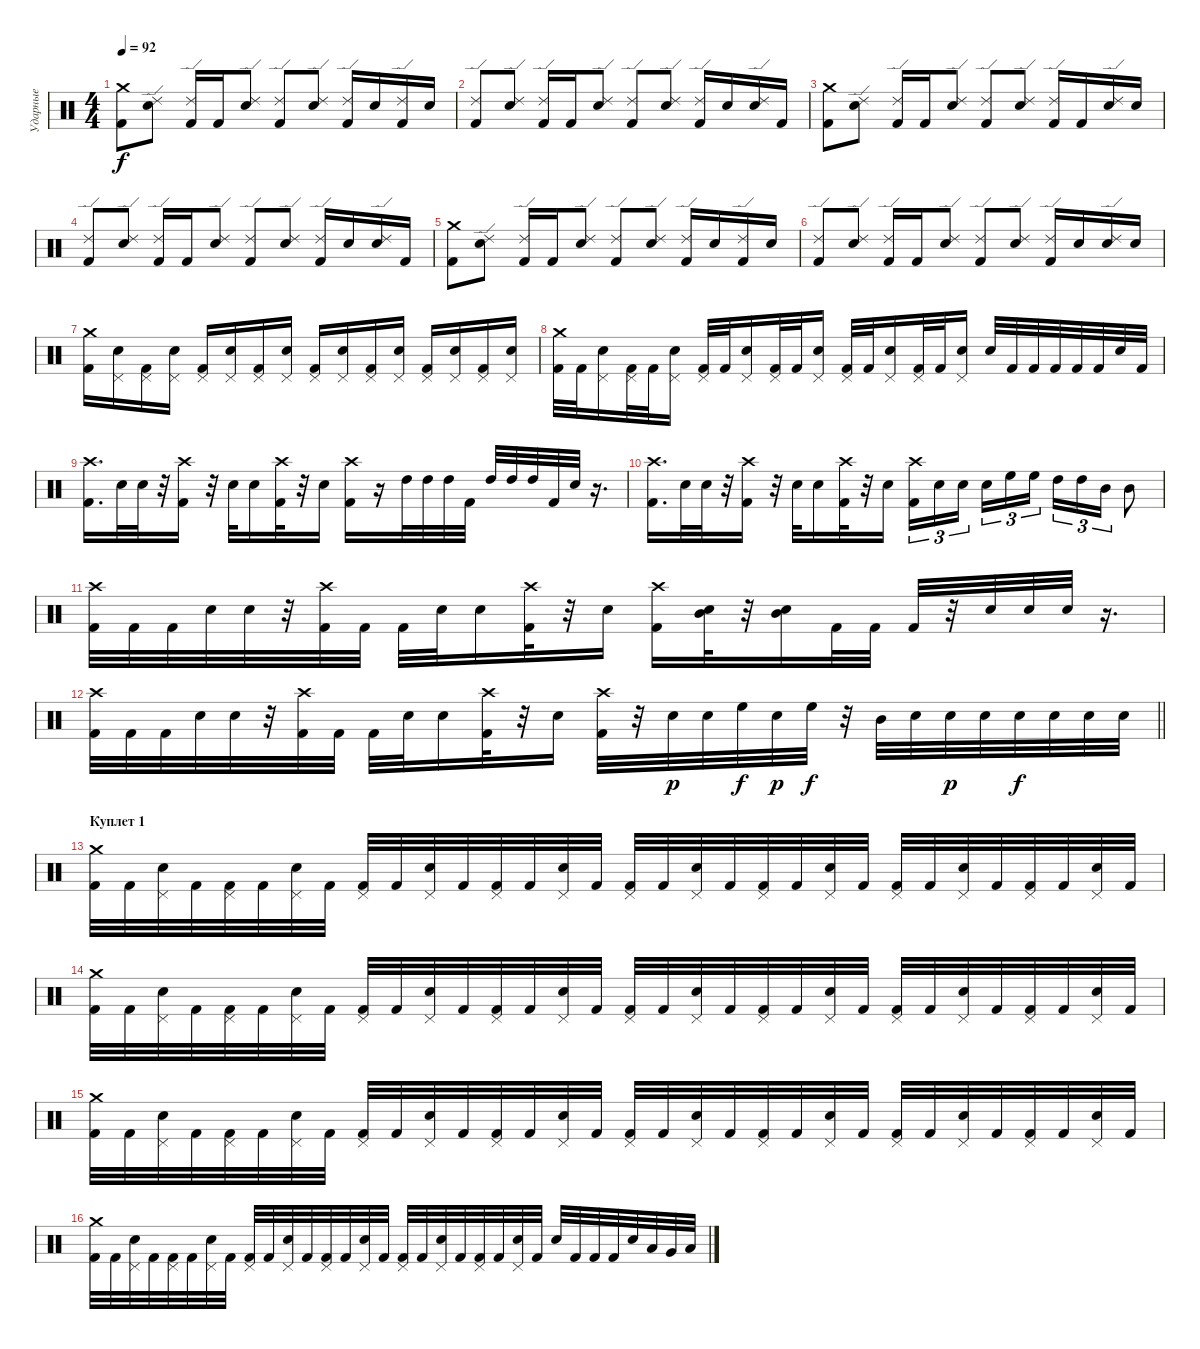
\track ("Ударные" "Ударные") {instrument percussion}
\staff {score}
\articulation defaults
\ts (4 4)
\tempo 92
\clef neutral
\ks c
("Crash medium (hit)" "Kick (hit) 2").8{dy f} ("Ride (edge) 2" "Electric Snare (hit)").8 ("Ride (edge) 2" "Kick (hit) 2").16 "Kick (hit) 2".16 ("Ride (edge) 2" "Electric Snare (hit)").8 ("Ride (edge) 2" "Kick (hit) 2").8 ("Ride (edge) 2" "Electric Snare (hit)").8 ("Ride (edge) 2" "Kick (hit) 2").16 "Electric Snare (hit)".16 ("Ride (edge) 2" "Kick (hit) 2").16 "Electric Snare (hit)".16 |
("Ride (edge) 2" "Kick (hit) 2").8 ("Ride (edge) 2" "Electric Snare (hit)").8 ("Ride (edge) 2" "Kick (hit) 2").16 "Kick (hit) 2".16 ("Ride (edge) 2" "Electric Snare (hit)").8 ("Ride (edge) 2" "Kick (hit) 2").8 ("Ride (edge) 2" "Electric Snare (hit)").8 ("Ride (edge) 2" "Kick (hit) 2").16 "Electric Snare (hit)".16 ("Ride (edge) 2" "Electric Snare (hit)").16 "Kick (hit) 2".16 |
("Crash medium (hit)" "Kick (hit) 2").8 ("Ride (edge) 2" "Electric Snare (hit)").8 ("Ride (edge) 2" "Kick (hit) 2").16 "Kick (hit) 2".16 ("Ride (edge) 2" "Electric Snare (hit)").8 ("Ride (edge) 2" "Kick (hit) 2").8 ("Ride (edge) 2" "Electric Snare (hit)").8 ("Ride (edge) 2" "Kick (hit) 2").16 "Kick (hit) 2".16 ("Ride (edge) 2" "Electric Snare (hit)").16 "Electric Snare (hit)".16 |
("Ride (edge) 2" "Kick (hit) 2").8 ("Ride (edge) 2" "Electric Snare (hit)").8 ("Ride (edge) 2" "Kick (hit) 2").16 "Kick (hit) 2".16 ("Ride (edge) 2" "Electric Snare (hit)").8 ("Ride (edge) 2" "Kick (hit) 2").8 ("Ride (edge) 2" "Electric Snare (hit)").8 ("Ride (edge) 2" "Kick (hit) 2").16 "Electric Snare (hit)".16 ("Ride (edge) 2" "Electric Snare (hit)").16 "Kick (hit) 2".16 |
("Crash medium (hit)" "Kick (hit) 2").8 ("Ride (edge) 2" "Electric Snare (hit)").8 ("Ride (edge) 2" "Kick (hit) 2").16 "Kick (hit) 2".16 ("Ride (edge) 2" "Electric Snare (hit)").8 ("Ride (edge) 2" "Kick (hit) 2").8 ("Ride (edge) 2" "Electric Snare (hit)").8 ("Ride (edge) 2" "Kick (hit) 2").16 "Electric Snare (hit)".16 ("Ride (edge) 2" "Kick (hit) 2").16 "Electric Snare (hit)".16 |
("Ride (edge) 2" "Kick (hit) 2").8 ("Ride (edge) 2" "Electric Snare (hit)").8 ("Ride (edge) 2" "Kick (hit) 2").16 "Kick (hit) 2".16 ("Ride (edge) 2" "Electric Snare (hit)").8 ("Ride (edge) 2" "Kick (hit) 2").8 ("Ride (edge) 2" "Electric Snare (hit)").8 ("Ride (edge) 2" "Kick (hit) 2").16 "Electric Snare (hit)".16 ("Ride (edge) 2" "Electric Snare (hit)").16 "Electric Snare (hit)".16 |
("Crash medium (hit)" "Kick (hit) 2").16 ("Pedal Hi-Hat (hit)" "Electric Snare (hit)").16 ("Pedal Hi-Hat (hit)" "Kick (hit) 2").16 ("Pedal Hi-Hat (hit)" "Electric Snare (hit)").16 ("Kick (hit) 2" "Pedal Hi-Hat (hit)").16 ("Electric Snare (hit)" "Pedal Hi-Hat (hit)").16 ("Kick (hit) 2" "Pedal Hi-Hat (hit)").16 ("Electric Snare (hit)" "Pedal Hi-Hat (hit)").16 ("Kick (hit) 2" "Pedal Hi-Hat (hit)").16 ("Electric Snare (hit)" "Pedal Hi-Hat (hit)").16 ("Kick (hit) 2" "Pedal Hi-Hat (hit)").16 ("Electric Snare (hit)" "Pedal Hi-Hat (hit)").16 ("Kick (hit) 2" "Pedal Hi-Hat (hit)").16 ("Electric Snare (hit)" "Pedal Hi-Hat (hit)").16 ("Kick (hit) 2" "Pedal Hi-Hat (hit)").16 ("Electric Snare (hit)" "Pedal Hi-Hat (hit)").16 |
("Crash medium (hit)" "Kick (hit) 2").32 "Kick (hit) 2".32 ("Pedal Hi-Hat (hit)" "Electric Snare (hit)").16 ("Pedal Hi-Hat (hit)" "Kick (hit) 2").32 "Kick (hit) 2".32 ("Pedal Hi-Hat (hit)" "Electric Snare (hit)").16 ("Kick (hit) 2" "Pedal Hi-Hat (hit)").32 "Kick (hit) 2".32 ("Electric Snare (hit)" "Pedal Hi-Hat (hit)").16 ("Kick (hit) 2" "Pedal Hi-Hat (hit)").32 "Kick (hit) 2".32 ("Electric Snare (hit)" "Pedal Hi-Hat (hit)").16 ("Kick (hit) 2" "Pedal Hi-Hat (hit)").32 "Kick (hit) 2".32 ("Electric Snare (hit)" "Pedal Hi-Hat (hit)").16 ("Kick (hit) 2" "Pedal Hi-Hat (hit)").32 "Kick (hit) 2".32 ("Electric Snare (hit)" "Pedal Hi-Hat (hit)").16 "Electric Snare (hit)".32 "Kick (hit) 2".32 "Kick (hit) 2".32 "Kick (hit) 2".32 "Kick (hit) 2".32 "Kick (hit) 2".32 "Electric Snare (hit)".32 "Kick (hit) 2".32 |
("Kick (hit) 2" "Crash high (hit)").16{d} "Electric Snare (hit)".32 "Electric Snare (hit)".32 r.32 ("Kick (hit) 2" "Crash high (hit)").16 r.32 "Electric Snare (hit)".32 "Electric Snare (hit)".16 ("Kick (hit) 2" "Crash high (hit)").32 r.32 "Electric Snare (hit)".16 ("Kick (hit) 2" "Crash high (hit)").16 r.16 "High Tom (hit)".32 "High Tom (hit)".32 "High Tom (hit)".32 "Kick (hit) 2".32 "High Tom (hit)".32 "High Tom (hit)".32 "High Tom (hit)".32 "Kick (hit) 2".32 "Electric Snare (hit)".32 r.16{d} |
("Kick (hit) 2" "Crash high (hit)").16{d} "Electric Snare (hit)".32 "Electric Snare (hit)".32 r.32 ("Kick (hit) 2" "Crash high (hit)").16 r.32 "Electric Snare (hit)".32 "Electric Snare (hit)".16 ("Kick (hit) 2" "Crash high (hit)").32 r.32 "Electric Snare (hit)".16 ("Kick (hit) 2" "Crash high (hit)").16{tu (3 2)} "Electric Snare (hit)".16{tu (3 2)} "Electric Snare (hit)".16{tu (3 2) beam splitsecondary} "Electric Snare (hit)".16{tu (3 2)} "High Floor Tom (hit)".16{tu (3 2)} "High Floor Tom (hit)".16{tu (3 2)} "High Tom (hit)".16{tu (3 2)} "High Tom (hit)".16{tu (3 2)} "Mid Tom (hit)".16{tu (3 2)} "Mid Tom (hit)".8 |
("Kick (hit) 2" "Crash high (hit)").32 "Kick (hit) 2".32 "Kick (hit) 2".32 "Electric Snare (hit)".32 "Electric Snare (hit)".32 r.32 ("Kick (hit) 2" "Crash high (hit)").32 "Kick (hit) 2".32 "Kick (hit) 2".32 "Electric Snare (hit)".32 "Electric Snare (hit)".16 ("Kick (hit) 2" "Crash high (hit)").32 r.32 "Electric Snare (hit)".16 ("Kick (hit) 2" "Crash high (hit)").16 ("Mid Tom (hit)" "Electric Snare (hit)").32 r.32 ("Mid Tom (hit)" "Electric Snare (hit)").16 "Kick (hit) 2".32 "Kick (hit) 2".32 "Kick (hit) 2".32 r.32 "Electric Snare (hit)".32 "Electric Snare (hit)".32 "Electric Snare (hit)".32 r.16{d} |
\barLineRight lightlight
("Kick (hit) 2" "Crash high (hit)").32 "Kick (hit) 2".32 "Kick (hit) 2".32 "Electric Snare (hit)".32 "Electric Snare (hit)".32 r.32 ("Kick (hit) 2" "Crash high (hit)").32 "Kick (hit) 2".32 "Kick (hit) 2".32 "Electric Snare (hit)".32 "Electric Snare (hit)".16 ("Kick (hit) 2" "Crash high (hit)").32 r.32 "Electric Snare (hit)".16 ("Kick (hit) 2" "Crash high (hit)").32 r.32 "Snare (hit) 2".32{dy p} "Snare (hit) 2".32 "High Floor Tom (hit)".32{dy f} "Snare (hit) 2".32{dy p} "High Floor Tom (hit)".32{dy f} r.32 "Mid Tom (hit)".32 "Electric Snare (hit)".32 "Snare (hit) 2".32{dy p} "Snare (hit) 2".32 "Electric Snare (hit)".32{dy f} "Electric Snare (hit)".32 "Electric Snare (hit)".32 "Electric Snare (hit)".32 |
\section ("" "Куплет 1")
("Crash medium (hit)" "Kick (hit) 2").32 "Kick (hit) 2".32 ("Pedal Hi-Hat (hit)" "Electric Snare (hit)").32 "Kick (hit) 2".32 ("Pedal Hi-Hat (hit)" "Kick (hit) 2").32 "Kick (hit) 2".32 ("Pedal Hi-Hat (hit)" "Electric Snare (hit)").32 "Kick (hit) 2".32 ("Kick (hit) 2" "Pedal Hi-Hat (hit)").32 "Kick (hit) 2".32 ("Electric Snare (hit)" "Pedal Hi-Hat (hit)").32 "Kick (hit) 2".32 ("Kick (hit) 2" "Pedal Hi-Hat (hit)").32 "Kick (hit) 2".32 ("Electric Snare (hit)" "Pedal Hi-Hat (hit)").32 "Kick (hit) 2".32 ("Kick (hit) 2" "Pedal Hi-Hat (hit)").32 "Kick (hit) 2".32 ("Electric Snare (hit)" "Pedal Hi-Hat (hit)").32 "Kick (hit) 2".32 ("Kick (hit) 2" "Pedal Hi-Hat (hit)").32 "Kick (hit) 2".32 ("Electric Snare (hit)" "Pedal Hi-Hat (hit)").32 "Kick (hit) 2".32 ("Kick (hit) 2" "Pedal Hi-Hat (hit)").32 "Kick (hit) 2".32 ("Electric Snare (hit)" "Pedal Hi-Hat (hit)").32 "Kick (hit) 2".32 ("Kick (hit) 2" "Pedal Hi-Hat (hit)").32 "Kick (hit) 2".32 ("Electric Snare (hit)" "Pedal Hi-Hat (hit)").32 "Kick (hit) 2".32 |
("Crash medium (hit)" "Kick (hit) 2").32 "Kick (hit) 2".32 ("Pedal Hi-Hat (hit)" "Electric Snare (hit)").32 "Kick (hit) 2".32 ("Pedal Hi-Hat (hit)" "Kick (hit) 2").32 "Kick (hit) 2".32 ("Pedal Hi-Hat (hit)" "Electric Snare (hit)").32 "Kick (hit) 2".32 ("Kick (hit) 2" "Pedal Hi-Hat (hit)").32 "Kick (hit) 2".32 ("Electric Snare (hit)" "Pedal Hi-Hat (hit)").32 "Kick (hit) 2".32 ("Kick (hit) 2" "Pedal Hi-Hat (hit)").32 "Kick (hit) 2".32 ("Electric Snare (hit)" "Pedal Hi-Hat (hit)").32 "Kick (hit) 2".32 ("Kick (hit) 2" "Pedal Hi-Hat (hit)").32 "Kick (hit) 2".32 ("Electric Snare (hit)" "Pedal Hi-Hat (hit)").32 "Kick (hit) 2".32 ("Kick (hit) 2" "Pedal Hi-Hat (hit)").32 "Kick (hit) 2".32 ("Electric Snare (hit)" "Pedal Hi-Hat (hit)").32 "Kick (hit) 2".32 ("Kick (hit) 2" "Pedal Hi-Hat (hit)").32 "Kick (hit) 2".32 ("Electric Snare (hit)" "Pedal Hi-Hat (hit)").32 "Kick (hit) 2".32 ("Kick (hit) 2" "Pedal Hi-Hat (hit)").32 "Kick (hit) 2".32 ("Electric Snare (hit)" "Pedal Hi-Hat (hit)").32 "Kick (hit) 2".32 |
("Crash medium (hit)" "Kick (hit) 2").32 "Kick (hit) 2".32 ("Pedal Hi-Hat (hit)" "Electric Snare (hit)").32 "Kick (hit) 2".32 ("Pedal Hi-Hat (hit)" "Kick (hit) 2").32 "Kick (hit) 2".32 ("Pedal Hi-Hat (hit)" "Electric Snare (hit)").32 "Kick (hit) 2".32 ("Kick (hit) 2" "Pedal Hi-Hat (hit)").32 "Kick (hit) 2".32 ("Electric Snare (hit)" "Pedal Hi-Hat (hit)").32 "Kick (hit) 2".32 ("Kick (hit) 2" "Pedal Hi-Hat (hit)").32 "Kick (hit) 2".32 ("Electric Snare (hit)" "Pedal Hi-Hat (hit)").32 "Kick (hit) 2".32 ("Kick (hit) 2" "Pedal Hi-Hat (hit)").32 "Kick (hit) 2".32 ("Electric Snare (hit)" "Pedal Hi-Hat (hit)").32 "Kick (hit) 2".32 ("Kick (hit) 2" "Pedal Hi-Hat (hit)").32 "Kick (hit) 2".32 ("Electric Snare (hit)" "Pedal Hi-Hat (hit)").32 "Kick (hit) 2".32 ("Kick (hit) 2" "Pedal Hi-Hat (hit)").32 "Kick (hit) 2".32 ("Electric Snare (hit)" "Pedal Hi-Hat (hit)").32 "Kick (hit) 2".32 ("Kick (hit) 2" "Pedal Hi-Hat (hit)").32 "Kick (hit) 2".32 ("Electric Snare (hit)" "Pedal Hi-Hat (hit)").32 "Kick (hit) 2".32 |
("Crash medium (hit)" "Kick (hit) 2").32 "Kick (hit) 2".32 ("Pedal Hi-Hat (hit)" "Electric Snare (hit)").32 "Kick (hit) 2".32 ("Pedal Hi-Hat (hit)" "Kick (hit) 2").32 "Kick (hit) 2".32 ("Pedal Hi-Hat (hit)" "Electric Snare (hit)").32 "Kick (hit) 2".32 ("Kick (hit) 2" "Pedal Hi-Hat (hit)").32 "Kick (hit) 2".32 ("Electric Snare (hit)" "Pedal Hi-Hat (hit)").32 "Kick (hit) 2".32 ("Kick (hit) 2" "Pedal Hi-Hat (hit)").32 "Kick (hit) 2".32 ("Electric Snare (hit)" "Pedal Hi-Hat (hit)").32 "Kick (hit) 2".32 ("Kick (hit) 2" "Pedal Hi-Hat (hit)").32 "Kick (hit) 2".32 ("Electric Snare (hit)" "Pedal Hi-Hat (hit)").32 "Kick (hit) 2".32 ("Kick (hit) 2" "Pedal Hi-Hat (hit)").32 "Kick (hit) 2".32 ("Electric Snare (hit)" "Pedal Hi-Hat (hit)").32 "Kick (hit) 2".32 "Electric Snare (hit)".32 "Kick (hit) 2".32 "Kick (hit) 2".32 "Kick (hit) 2".32 "Electric Snare (hit)".32 "Low Floor Tom (hit)".32 "Very Low Tom (hit)".32 "Low Tom (hit)".32
